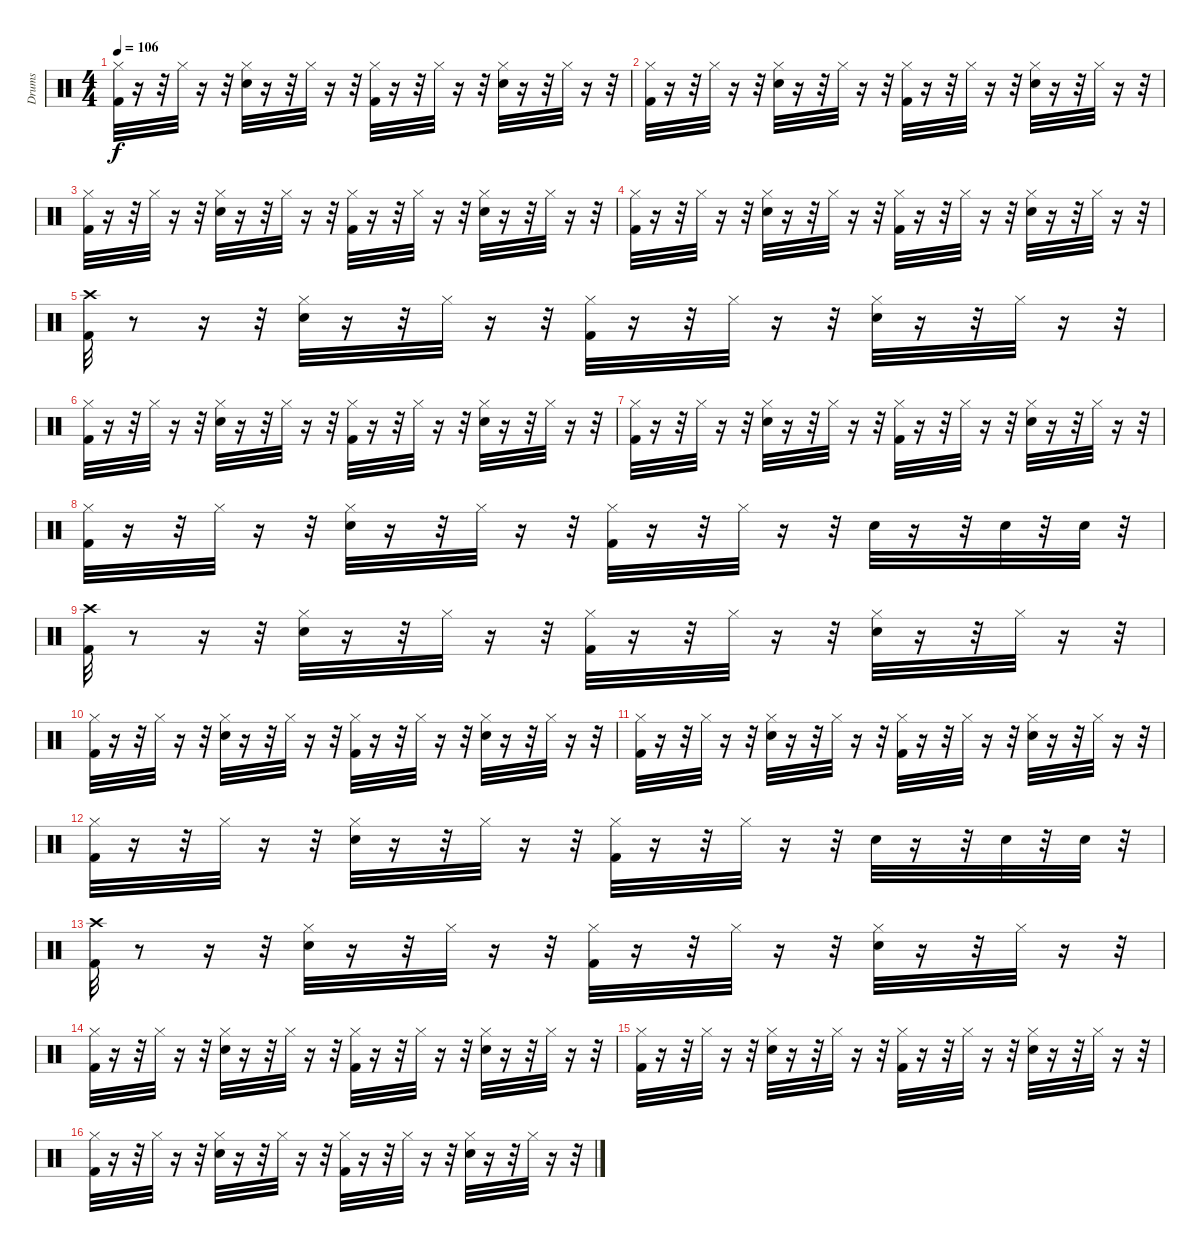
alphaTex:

\track ("Drums" "Drums") {instrument percussion}
\staff {score}
\articulation defaults
\ts (4 4)
\tempo 106
\clef neutral
\ks c
("Hi-Hat (closed)" "Kick (hit) 2").32{dy f} r.16 r.32 "Hi-Hat (closed)".32 r.16 r.32 ("Hi-Hat (closed)" "Snare (hit) 2").32 r.16 r.32 "Hi-Hat (closed)".32 r.16 r.32 ("Hi-Hat (closed)" "Kick (hit) 2").32 r.16 r.32 "Hi-Hat (closed)".32 r.16 r.32 ("Hi-Hat (closed)" "Snare (hit) 2").32 r.16 r.32 "Hi-Hat (closed)".32 r.16 r.32 |
("Hi-Hat (closed)" "Kick (hit) 2").32 r.16 r.32 "Hi-Hat (closed)".32 r.16 r.32 ("Hi-Hat (closed)" "Snare (hit) 2").32 r.16 r.32 "Hi-Hat (closed)".32 r.16 r.32 ("Hi-Hat (closed)" "Kick (hit) 2").32 r.16 r.32 "Hi-Hat (closed)".32 r.16 r.32 ("Hi-Hat (closed)" "Snare (hit) 2").32 r.16 r.32 "Hi-Hat (closed)".32 r.16 r.32 |
("Hi-Hat (closed)" "Kick (hit) 2").32 r.16 r.32 "Hi-Hat (closed)".32 r.16 r.32 ("Hi-Hat (closed)" "Snare (hit) 2").32 r.16 r.32 "Hi-Hat (closed)".32 r.16 r.32 ("Hi-Hat (closed)" "Kick (hit) 2").32 r.16 r.32 "Hi-Hat (closed)".32 r.16 r.32 ("Hi-Hat (closed)" "Snare (hit) 2").32 r.16 r.32 "Hi-Hat (closed)".32 r.16 r.32 |
("Hi-Hat (closed)" "Kick (hit) 2").32 r.16 r.32 "Hi-Hat (closed)".32 r.16 r.32 ("Hi-Hat (closed)" "Snare (hit) 2").32 r.16 r.32 "Hi-Hat (closed)".32 r.16 r.32 ("Hi-Hat (closed)" "Kick (hit) 2").32 r.16 r.32 "Hi-Hat (closed)".32 r.16 r.32 ("Hi-Hat (closed)" "Snare (hit) 2").32 r.16 r.32 "Hi-Hat (closed)".32 r.16 r.32 |
("Crash high (hit)" "Kick (hit) 2").32 r.8 r.16 r.32 ("Hi-Hat (closed)" "Snare (hit) 2").32 r.16 r.32 "Hi-Hat (closed)".32 r.16 r.32 ("Hi-Hat (closed)" "Kick (hit) 2").32 r.16 r.32 "Hi-Hat (closed)".32 r.16 r.32 ("Hi-Hat (closed)" "Snare (hit) 2").32 r.16 r.32 "Hi-Hat (closed)".32 r.16 r.32 |
("Hi-Hat (closed)" "Kick (hit) 2").32 r.16 r.32 "Hi-Hat (closed)".32 r.16 r.32 ("Hi-Hat (closed)" "Snare (hit) 2").32 r.16 r.32 "Hi-Hat (closed)".32 r.16 r.32 ("Hi-Hat (closed)" "Kick (hit) 2").32 r.16 r.32 "Hi-Hat (closed)".32 r.16 r.32 ("Hi-Hat (closed)" "Snare (hit) 2").32 r.16 r.32 "Hi-Hat (closed)".32 r.16 r.32 |
("Hi-Hat (closed)" "Kick (hit) 2").32 r.16 r.32 "Hi-Hat (closed)".32 r.16 r.32 ("Hi-Hat (closed)" "Snare (hit) 2").32 r.16 r.32 "Hi-Hat (closed)".32 r.16 r.32 ("Hi-Hat (closed)" "Kick (hit) 2").32 r.16 r.32 "Hi-Hat (closed)".32 r.16 r.32 ("Hi-Hat (closed)" "Snare (hit) 2").32 r.16 r.32 "Hi-Hat (closed)".32 r.16 r.32 |
("Hi-Hat (closed)" "Kick (hit) 2").32 r.16 r.32 "Hi-Hat (closed)".32 r.16 r.32 ("Hi-Hat (closed)" "Snare (hit) 2").32 r.16 r.32 "Hi-Hat (closed)".32 r.16 r.32 ("Hi-Hat (closed)" "Kick (hit) 2").32 r.16 r.32 "Hi-Hat (closed)".32 r.16 r.32 "Snare (hit) 2".32 r.16 r.32 "Snare (hit) 2".32 r.32 "Snare (hit) 2".32 r.32 |
("Crash high (hit)" "Kick (hit) 2").32 r.8 r.16 r.32 ("Hi-Hat (closed)" "Snare (hit) 2").32 r.16 r.32 "Hi-Hat (closed)".32 r.16 r.32 ("Hi-Hat (closed)" "Kick (hit) 2").32 r.16 r.32 "Hi-Hat (closed)".32 r.16 r.32 ("Hi-Hat (closed)" "Snare (hit) 2").32 r.16 r.32 "Hi-Hat (closed)".32 r.16 r.32 |
("Hi-Hat (closed)" "Kick (hit) 2").32 r.16 r.32 "Hi-Hat (closed)".32 r.16 r.32 ("Hi-Hat (closed)" "Snare (hit) 2").32 r.16 r.32 "Hi-Hat (closed)".32 r.16 r.32 ("Hi-Hat (closed)" "Kick (hit) 2").32 r.16 r.32 "Hi-Hat (closed)".32 r.16 r.32 ("Hi-Hat (closed)" "Snare (hit) 2").32 r.16 r.32 "Hi-Hat (closed)".32 r.16 r.32 |
("Hi-Hat (closed)" "Kick (hit) 2").32 r.16 r.32 "Hi-Hat (closed)".32 r.16 r.32 ("Hi-Hat (closed)" "Snare (hit) 2").32 r.16 r.32 "Hi-Hat (closed)".32 r.16 r.32 ("Hi-Hat (closed)" "Kick (hit) 2").32 r.16 r.32 "Hi-Hat (closed)".32 r.16 r.32 ("Hi-Hat (closed)" "Snare (hit) 2").32 r.16 r.32 "Hi-Hat (closed)".32 r.16 r.32 |
("Hi-Hat (closed)" "Kick (hit) 2").32 r.16 r.32 "Hi-Hat (closed)".32 r.16 r.32 ("Hi-Hat (closed)" "Snare (hit) 2").32 r.16 r.32 "Hi-Hat (closed)".32 r.16 r.32 ("Hi-Hat (closed)" "Kick (hit) 2").32 r.16 r.32 "Hi-Hat (closed)".32 r.16 r.32 "Snare (hit) 2".32 r.16 r.32 "Snare (hit) 2".32 r.32 "Snare (hit) 2".32 r.32 |
("Crash high (hit)" "Kick (hit) 2").32 r.8 r.16 r.32 ("Hi-Hat (closed)" "Snare (hit) 2").32 r.16 r.32 "Hi-Hat (closed)".32 r.16 r.32 ("Hi-Hat (closed)" "Kick (hit) 2").32 r.16 r.32 "Hi-Hat (closed)".32 r.16 r.32 ("Hi-Hat (closed)" "Snare (hit) 2").32 r.16 r.32 "Hi-Hat (closed)".32 r.16 r.32 |
("Hi-Hat (closed)" "Kick (hit) 2").32 r.16 r.32 "Hi-Hat (closed)".32 r.16 r.32 ("Hi-Hat (closed)" "Snare (hit) 2").32 r.16 r.32 "Hi-Hat (closed)".32 r.16 r.32 ("Hi-Hat (closed)" "Kick (hit) 2").32 r.16 r.32 "Hi-Hat (closed)".32 r.16 r.32 ("Hi-Hat (closed)" "Snare (hit) 2").32 r.16 r.32 "Hi-Hat (closed)".32 r.16 r.32 |
("Hi-Hat (closed)" "Kick (hit) 2").32 r.16 r.32 "Hi-Hat (closed)".32 r.16 r.32 ("Hi-Hat (closed)" "Snare (hit) 2").32 r.16 r.32 "Hi-Hat (closed)".32 r.16 r.32 ("Hi-Hat (closed)" "Kick (hit) 2").32 r.16 r.32 "Hi-Hat (closed)".32 r.16 r.32 ("Hi-Hat (closed)" "Snare (hit) 2").32 r.16 r.32 "Hi-Hat (closed)".32 r.16 r.32 |
("Hi-Hat (closed)" "Kick (hit) 2").32 r.16 r.32 "Hi-Hat (closed)".32 r.16 r.32 ("Hi-Hat (closed)" "Snare (hit) 2").32 r.16 r.32 "Hi-Hat (closed)".32 r.16 r.32 ("Hi-Hat (closed)" "Kick (hit) 2").32 r.16 r.32 "Hi-Hat (closed)".32 r.16 r.32 ("Hi-Hat (closed)" "Snare (hit) 2").32 r.16 r.32 "Hi-Hat (closed)".32 r.16 r.32
